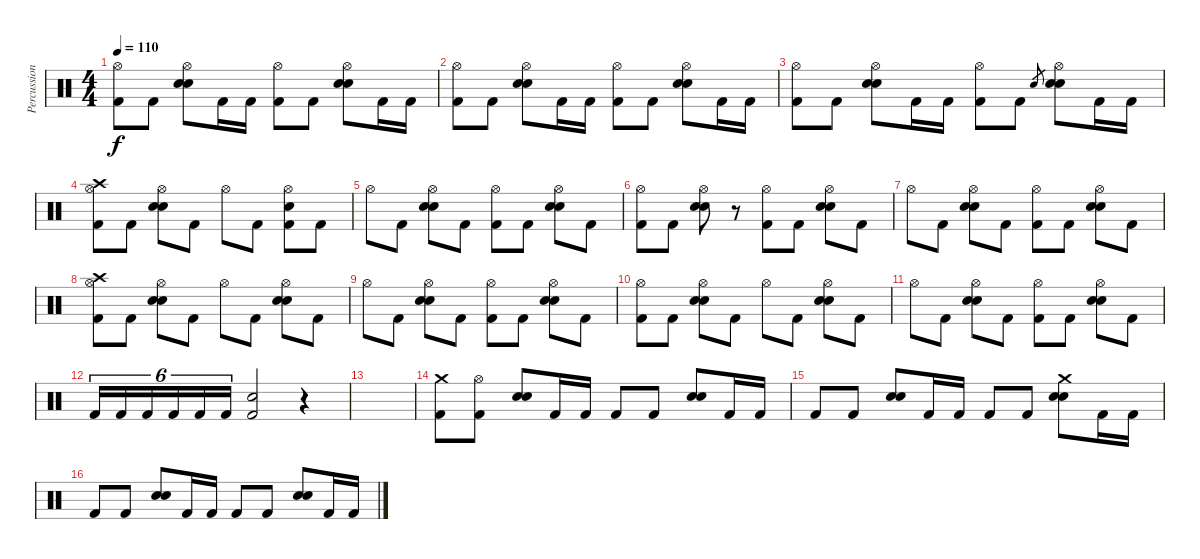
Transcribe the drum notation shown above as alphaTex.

\track ("Percussion" "Percussion") {instrument percussion}
\staff {score}
\articulation defaults
\ts (4 4)
\tempo 110
\clef neutral
\ks c
("Hi-Hat (open)" "Kick (hit) 2").8{dy f} "Kick (hit) 2".8 ("Hi-Hat (open)" "Electric Snare (hit)" "Electric Snare (hit)").8 "Kick (hit) 2".16 "Kick (hit) 2".16 ("Hi-Hat (open)" "Kick (hit) 2").8 "Kick (hit) 2".8 ("Hi-Hat (open)" "Electric Snare (hit)" "Electric Snare (hit)").8 "Kick (hit) 2".16 "Kick (hit) 2".16 |
("Hi-Hat (open)" "Kick (hit) 2").8 "Kick (hit) 2".8 ("Hi-Hat (open)" "Electric Snare (hit)" "Electric Snare (hit)").8 "Kick (hit) 2".16 "Kick (hit) 2".16 ("Hi-Hat (open)" "Kick (hit) 2").8 "Kick (hit) 2".8 ("Hi-Hat (open)" "Electric Snare (hit)" "Electric Snare (hit)").8 "Kick (hit) 2".16 "Kick (hit) 2".16 |
("Hi-Hat (open)" "Kick (hit) 2").8 "Kick (hit) 2".8 ("Hi-Hat (open)" "Electric Snare (hit)" "Electric Snare (hit)").8 "Kick (hit) 2".16 "Kick (hit) 2".16 ("Hi-Hat (open)" "Kick (hit) 2").8 "Kick (hit) 2".8 "Electric Snare (hit)".8{gr} ("Hi-Hat (open)" "Electric Snare (hit)" "Electric Snare (hit)").8 "Kick (hit) 2".16 "Kick (hit) 2".16 |
("Hi-Hat (open)" "Crash high (hit)" "Kick (hit) 2").8 "Kick (hit) 2".8 ("Hi-Hat (open)" "Electric Snare (hit)" "Electric Snare (hit)").8 "Kick (hit) 2".8 "Hi-Hat (open)".8 "Kick (hit) 2".8 ("Hi-Hat (open)" "Electric Snare (hit)" "Kick (hit) 2").8 "Kick (hit) 2".8 |
"Hi-Hat (open)".8 "Kick (hit) 2".8 ("Hi-Hat (open)" "Electric Snare (hit)" "Electric Snare (hit)").8 "Kick (hit) 2".8 ("Hi-Hat (open)" "Kick (hit) 2").8 "Kick (hit) 2".8 ("Hi-Hat (open)" "Electric Snare (hit)" "Electric Snare (hit)").8 "Kick (hit) 2".8 |
("Hi-Hat (open)" "Kick (hit) 2").8 "Kick (hit) 2".8 ("Hi-Hat (open)" "Electric Snare (hit)" "Electric Snare (hit)").8 r.8 ("Hi-Hat (open)" "Kick (hit) 2").8 "Kick (hit) 2".8 ("Hi-Hat (open)" "Electric Snare (hit)" "Electric Snare (hit)").8 "Kick (hit) 2".8 |
"Hi-Hat (open)".8 "Kick (hit) 2".8 ("Hi-Hat (open)" "Electric Snare (hit)" "Electric Snare (hit)").8 "Kick (hit) 2".8 ("Hi-Hat (open)" "Kick (hit) 2").8 "Kick (hit) 2".8 ("Hi-Hat (open)" "Electric Snare (hit)" "Electric Snare (hit)").8 "Kick (hit) 2".8 |
("Hi-Hat (open)" "Crash high (hit)" "Kick (hit) 2").8 "Kick (hit) 2".8 ("Hi-Hat (open)" "Electric Snare (hit)" "Electric Snare (hit)").8 "Kick (hit) 2".8 "Hi-Hat (open)".8 "Kick (hit) 2".8 ("Hi-Hat (open)" "Electric Snare (hit)" "Electric Snare (hit)").8 "Kick (hit) 2".8 |
"Hi-Hat (open)".8 "Kick (hit) 2".8 ("Hi-Hat (open)" "Electric Snare (hit)" "Electric Snare (hit)").8 "Kick (hit) 2".8 ("Hi-Hat (open)" "Kick (hit) 2").8 "Kick (hit) 2".8 ("Hi-Hat (open)" "Electric Snare (hit)" "Electric Snare (hit)").8 "Kick (hit) 2".8 |
("Hi-Hat (open)" "Kick (hit) 2").8 "Kick (hit) 2".8 ("Hi-Hat (open)" "Electric Snare (hit)" "Electric Snare (hit)").8 "Kick (hit) 2".8 "Hi-Hat (open)".8 "Kick (hit) 2".8 ("Hi-Hat (open)" "Electric Snare (hit)" "Electric Snare (hit)").8 "Kick (hit) 2".8 |
"Hi-Hat (open)".8 "Kick (hit) 2".8 ("Hi-Hat (open)" "Electric Snare (hit)" "Electric Snare (hit)").8 "Kick (hit) 2".8 ("Hi-Hat (open)" "Kick (hit) 2").8 "Kick (hit) 2".8 ("Hi-Hat (open)" "Electric Snare (hit)" "Electric Snare (hit)").8 "Kick (hit) 2".8 |
"Kick (hit) 2".16{tu (6 4)} "Kick (hit) 2".16{tu (6 4)} "Kick (hit) 2".16{tu (6 4)} "Kick (hit) 2".16{tu (6 4)} "Kick (hit) 2".16{tu (6 4)} "Kick (hit) 2".16{tu (6 4)} ("Kick (hit) 2" "Snare (hit) 2").2 r.4 |
|
("Crash medium (hit)" "Kick (hit) 2").8{balance 8} ("Hi-Hat (open)" "Kick (hit) 2").8 ("Electric Snare (hit)" "Electric Snare (hit)").8 "Kick (hit) 2".16 "Kick (hit) 2".16 "Kick (hit) 2".8 "Kick (hit) 2".8 ("Electric Snare (hit)" "Electric Snare (hit)").8 "Kick (hit) 2".16 "Kick (hit) 2".16 |
"Kick (hit) 2".8 "Kick (hit) 2".8 ("Electric Snare (hit)" "Electric Snare (hit)").8 "Kick (hit) 2".16 "Kick (hit) 2".16 "Kick (hit) 2".8 "Kick (hit) 2".8 ("Crash medium (hit)" "Electric Snare (hit)" "Electric Snare (hit)").8 "Kick (hit) 2".16 "Kick (hit) 2".16 |
"Kick (hit) 2".8 "Kick (hit) 2".8 ("Electric Snare (hit)" "Electric Snare (hit)").8 "Kick (hit) 2".16 "Kick (hit) 2".16 "Kick (hit) 2".8 "Kick (hit) 2".8 ("Electric Snare (hit)" "Electric Snare (hit)").8 "Kick (hit) 2".16 "Kick (hit) 2".16
